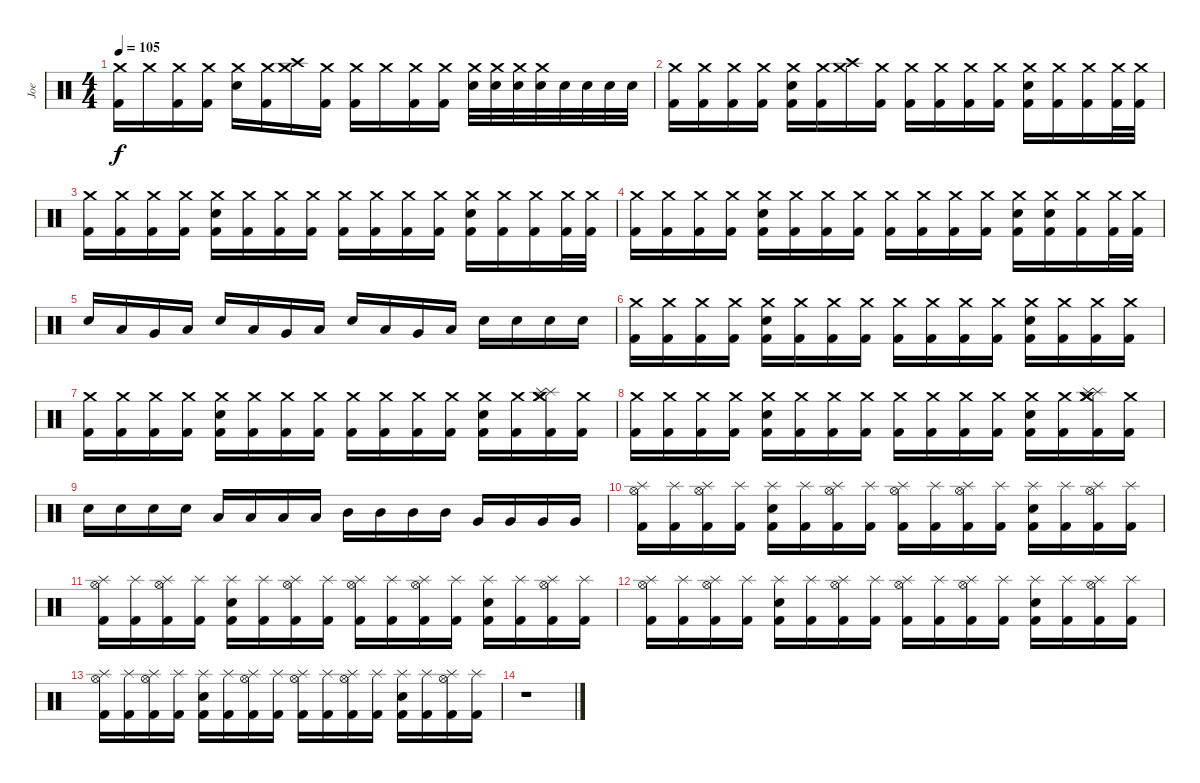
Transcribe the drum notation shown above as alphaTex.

\track ("Joe" "Joe") {instrument percussion}
\staff {score}
\articulation defaults
\ts (4 4)
\tempo 105
\clef neutral
\ks c
("Kick (hit) 2" "Crash medium (hit)").16{dy f} "Crash medium (hit)".16 ("Kick (hit) 2" "Crash medium (hit)").16 ("Kick (hit) 2" "Crash medium (hit)").16 ("Crash medium (hit)" "Electric Snare (hit)").16 ("Kick (hit) 2" "Crash medium (hit)").16 ("Crash high (hit)" "Crash medium (hit)").16 ("Kick (hit) 2" "Crash medium (hit)").16 ("Kick (hit) 2" "Crash medium (hit)").16 "Crash medium (hit)".16 ("Kick (hit) 2" "Crash medium (hit)").16 ("Kick (hit) 2" "Crash medium (hit)").16 ("Crash medium (hit)" "Electric Snare (hit)").32 ("Crash medium (hit)" "Electric Snare (hit)").32 ("Crash medium (hit)" "Electric Snare (hit)").32 ("Crash medium (hit)" "Electric Snare (hit)").32 "Electric Snare (hit)".32 "Electric Snare (hit)".32 "Electric Snare (hit)".32 "Electric Snare (hit)".32 |
("Kick (hit) 2" "Crash medium (hit)").16 ("Kick (hit) 2" "Crash medium (hit)").16 ("Kick (hit) 2" "Crash medium (hit)").16 ("Kick (hit) 2" "Crash medium (hit)").16 ("Kick (hit) 2" "Crash medium (hit)" "Electric Snare (hit)").16 ("Kick (hit) 2" "Crash medium (hit)").16 ("Crash high (hit)" "Crash medium (hit)").16 ("Kick (hit) 2" "Crash medium (hit)").16 ("Kick (hit) 2" "Crash medium (hit)").16 ("Kick (hit) 2" "Crash medium (hit)").16 ("Kick (hit) 2" "Crash medium (hit)").16 ("Kick (hit) 2" "Crash medium (hit)").16 ("Kick (hit) 2" "Crash medium (hit)" "Electric Snare (hit)").16 ("Kick (hit) 2" "Crash medium (hit)").16 ("Kick (hit) 2" "Crash medium (hit)").16 ("Kick (hit) 2" "Crash medium (hit)").32 ("Kick (hit) 2" "Crash medium (hit)").32 |
("Kick (hit) 2" "Crash medium (hit)").16 ("Kick (hit) 2" "Crash medium (hit)").16 ("Kick (hit) 2" "Crash medium (hit)").16 ("Kick (hit) 2" "Crash medium (hit)").16 ("Kick (hit) 2" "Crash medium (hit)" "Electric Snare (hit)").16 ("Kick (hit) 2" "Crash medium (hit)").16 ("Kick (hit) 2" "Crash medium (hit)").16 ("Kick (hit) 2" "Crash medium (hit)").16 ("Kick (hit) 2" "Crash medium (hit)").16 ("Kick (hit) 2" "Crash medium (hit)").16 ("Kick (hit) 2" "Crash medium (hit)").16 ("Kick (hit) 2" "Crash medium (hit)").16 ("Kick (hit) 2" "Crash medium (hit)" "Electric Snare (hit)").16 ("Kick (hit) 2" "Crash medium (hit)").16 ("Kick (hit) 2" "Crash medium (hit)").16 ("Kick (hit) 2" "Crash medium (hit)").32 ("Kick (hit) 2" "Crash medium (hit)").32 |
("Kick (hit) 2" "Crash medium (hit)").16 ("Kick (hit) 2" "Crash medium (hit)").16 ("Kick (hit) 2" "Crash medium (hit)").16 ("Kick (hit) 2" "Crash medium (hit)").16 ("Kick (hit) 2" "Crash medium (hit)" "Electric Snare (hit)").16 ("Kick (hit) 2" "Crash medium (hit)").16 ("Kick (hit) 2" "Crash medium (hit)").16 ("Kick (hit) 2" "Crash medium (hit)").16 ("Kick (hit) 2" "Crash medium (hit)").16 ("Kick (hit) 2" "Crash medium (hit)").16 ("Kick (hit) 2" "Crash medium (hit)").16 ("Kick (hit) 2" "Crash medium (hit)").16 ("Kick (hit) 2" "Crash medium (hit)" "Electric Snare (hit)").16 ("Kick (hit) 2" "Crash medium (hit)" "Electric Snare (hit)").16 ("Kick (hit) 2" "Crash medium (hit)").16 ("Kick (hit) 2" "Crash medium (hit)").32 ("Kick (hit) 2" "Crash medium (hit)").32 |
"Electric Snare (hit)".16 "Low Tom (hit)".16 "Very Low Tom (hit)".16 "Low Floor Tom (hit)".16 "Electric Snare (hit)".16 "Low Tom (hit)".16 "Very Low Tom (hit)".16 "Low Floor Tom (hit)".16 "Electric Snare (hit)".16 "Low Tom (hit)".16 "Very Low Tom (hit)".16 "Low Floor Tom (hit)".16 "Electric Snare (hit)".16 "Electric Snare (hit)".16 "Electric Snare (hit)".16 "Electric Snare (hit)".16 |
("Kick (hit) 2" "Crash medium (hit)").16 ("Kick (hit) 2" "Crash medium (hit)").16 ("Kick (hit) 2" "Crash medium (hit)").16 ("Kick (hit) 2" "Crash medium (hit)").16 ("Kick (hit) 2" "Electric Snare (hit)" "Crash medium (hit)").16 ("Kick (hit) 2" "Crash medium (hit)").16 ("Kick (hit) 2" "Crash medium (hit)").16 ("Kick (hit) 2" "Crash medium (hit)").16 ("Kick (hit) 2" "Crash medium (hit)").16 ("Kick (hit) 2" "Crash medium (hit)").16 ("Kick (hit) 2" "Crash medium (hit)").16 ("Kick (hit) 2" "Crash medium (hit)").16 ("Kick (hit) 2" "Electric Snare (hit)" "Crash medium (hit)").16 ("Kick (hit) 2" "Crash medium (hit)").16 ("Kick (hit) 2" "Crash medium (hit)").16 ("Kick (hit) 2" "Crash medium (hit)").16 |
("Kick (hit) 2" "Crash medium (hit)").16 ("Kick (hit) 2" "Crash medium (hit)").16 ("Kick (hit) 2" "Crash medium (hit)").16 ("Kick (hit) 2" "Crash medium (hit)").16 ("Kick (hit) 2" "Electric Snare (hit)" "Crash medium (hit)").16 ("Kick (hit) 2" "Crash medium (hit)").16 ("Kick (hit) 2" "Crash medium (hit)").16 ("Kick (hit) 2" "Crash medium (hit)").16 ("Kick (hit) 2" "Crash medium (hit)").16 ("Kick (hit) 2" "Crash medium (hit)").16 ("Kick (hit) 2" "Crash medium (hit)").16 ("Kick (hit) 2" "Crash medium (hit)").16 ("Kick (hit) 2" "Electric Snare (hit)" "Crash medium (hit)").16 ("Kick (hit) 2" "Crash medium (hit)").16 ("Kick (hit) 2" "Splash (hit)" "Crash medium (hit)" "Splash (hit)" "Crash medium (hit)").16 ("Kick (hit) 2" "Crash medium (hit)").16 |
("Kick (hit) 2" "Crash medium (hit)").16 ("Kick (hit) 2" "Crash medium (hit)").16 ("Kick (hit) 2" "Crash medium (hit)").16 ("Kick (hit) 2" "Crash medium (hit)").16 ("Kick (hit) 2" "Electric Snare (hit)" "Crash medium (hit)").16 ("Kick (hit) 2" "Crash medium (hit)").16 ("Kick (hit) 2" "Crash medium (hit)").16 ("Kick (hit) 2" "Crash medium (hit)").16 ("Kick (hit) 2" "Crash medium (hit)").16 ("Kick (hit) 2" "Crash medium (hit)").16 ("Kick (hit) 2" "Crash medium (hit)").16 ("Kick (hit) 2" "Crash medium (hit)").16 ("Kick (hit) 2" "Electric Snare (hit)" "Crash medium (hit)").16 ("Kick (hit) 2" "Crash medium (hit)").16 ("Kick (hit) 2" "Splash (hit)" "Crash medium (hit)" "Splash (hit)" "Crash medium (hit)").16 ("Kick (hit) 2" "Crash medium (hit)").16 |
"Electric Snare (hit)".16 "Electric Snare (hit)".16 "Electric Snare (hit)".16 "Electric Snare (hit)".16 "Low Tom (hit)".16 "Low Tom (hit)".16 "Low Tom (hit)".16 "Low Tom (hit)".16 "Mid Tom (hit)".16 "Mid Tom (hit)".16 "Mid Tom (hit)".16 "Mid Tom (hit)".16 "Very Low Tom (hit)".16 "Very Low Tom (hit)".16 "Very Low Tom (hit)".16 "Very Low Tom (hit)".16 |
("Kick (hit) 2" "Hi-Hat (open)" "Splash (hit)").16 ("Kick (hit) 2" "Splash (hit)").16 ("Kick (hit) 2" "Hi-Hat (open)" "Splash (hit)").16 ("Kick (hit) 2" "Splash (hit)").16 ("Kick (hit) 2" "Splash (hit)" "Electric Snare (hit)").16 ("Kick (hit) 2" "Splash (hit)").16 ("Kick (hit) 2" "Hi-Hat (open)" "Splash (hit)").16 ("Kick (hit) 2" "Splash (hit)").16 ("Kick (hit) 2" "Hi-Hat (open)" "Splash (hit)").16 ("Kick (hit) 2" "Splash (hit)").16 ("Kick (hit) 2" "Hi-Hat (open)" "Splash (hit)").16 ("Kick (hit) 2" "Splash (hit)").16 ("Kick (hit) 2" "Splash (hit)" "Electric Snare (hit)").16 ("Kick (hit) 2" "Splash (hit)").16 ("Kick (hit) 2" "Hi-Hat (open)" "Splash (hit)").16 ("Kick (hit) 2" "Splash (hit)").16 |
("Kick (hit) 2" "Hi-Hat (open)" "Splash (hit)").16 ("Kick (hit) 2" "Splash (hit)").16 ("Kick (hit) 2" "Hi-Hat (open)" "Splash (hit)").16 ("Kick (hit) 2" "Splash (hit)").16 ("Kick (hit) 2" "Splash (hit)" "Electric Snare (hit)").16 ("Kick (hit) 2" "Splash (hit)").16 ("Kick (hit) 2" "Hi-Hat (open)" "Splash (hit)").16 ("Kick (hit) 2" "Splash (hit)").16 ("Kick (hit) 2" "Hi-Hat (open)" "Splash (hit)").16 ("Kick (hit) 2" "Splash (hit)").16 ("Kick (hit) 2" "Hi-Hat (open)" "Splash (hit)").16 ("Kick (hit) 2" "Splash (hit)").16 ("Kick (hit) 2" "Splash (hit)" "Electric Snare (hit)").16 ("Kick (hit) 2" "Splash (hit)").16 ("Kick (hit) 2" "Hi-Hat (open)" "Splash (hit)").16 ("Kick (hit) 2" "Splash (hit)").16 |
("Kick (hit) 2" "Hi-Hat (open)" "Splash (hit)").16 ("Kick (hit) 2" "Splash (hit)").16 ("Kick (hit) 2" "Hi-Hat (open)" "Splash (hit)").16 ("Kick (hit) 2" "Splash (hit)").16 ("Kick (hit) 2" "Splash (hit)" "Electric Snare (hit)").16 ("Kick (hit) 2" "Splash (hit)").16 ("Kick (hit) 2" "Hi-Hat (open)" "Splash (hit)").16 ("Kick (hit) 2" "Splash (hit)").16 ("Kick (hit) 2" "Hi-Hat (open)" "Splash (hit)").16 ("Kick (hit) 2" "Splash (hit)").16 ("Kick (hit) 2" "Hi-Hat (open)" "Splash (hit)").16 ("Kick (hit) 2" "Splash (hit)").16 ("Kick (hit) 2" "Splash (hit)" "Electric Snare (hit)").16 ("Kick (hit) 2" "Splash (hit)").16 ("Kick (hit) 2" "Hi-Hat (open)" "Splash (hit)").16 ("Kick (hit) 2" "Splash (hit)").16 |
("Kick (hit) 2" "Hi-Hat (open)" "Splash (hit)").16 ("Kick (hit) 2" "Splash (hit)").16 ("Kick (hit) 2" "Hi-Hat (open)" "Splash (hit)").16 ("Kick (hit) 2" "Splash (hit)").16 ("Kick (hit) 2" "Splash (hit)" "Electric Snare (hit)").16 ("Kick (hit) 2" "Splash (hit)").16 ("Kick (hit) 2" "Hi-Hat (open)" "Splash (hit)").16 ("Kick (hit) 2" "Splash (hit)").16 ("Kick (hit) 2" "Hi-Hat (open)" "Splash (hit)").16 ("Kick (hit) 2" "Splash (hit)").16 ("Kick (hit) 2" "Hi-Hat (open)" "Splash (hit)").16 ("Kick (hit) 2" "Splash (hit)").16 ("Kick (hit) 2" "Splash (hit)" "Electric Snare (hit)").16 ("Kick (hit) 2" "Splash (hit)").16 ("Kick (hit) 2" "Hi-Hat (open)" "Splash (hit)").16 ("Kick (hit) 2" "Splash (hit)").16 |
r.1
